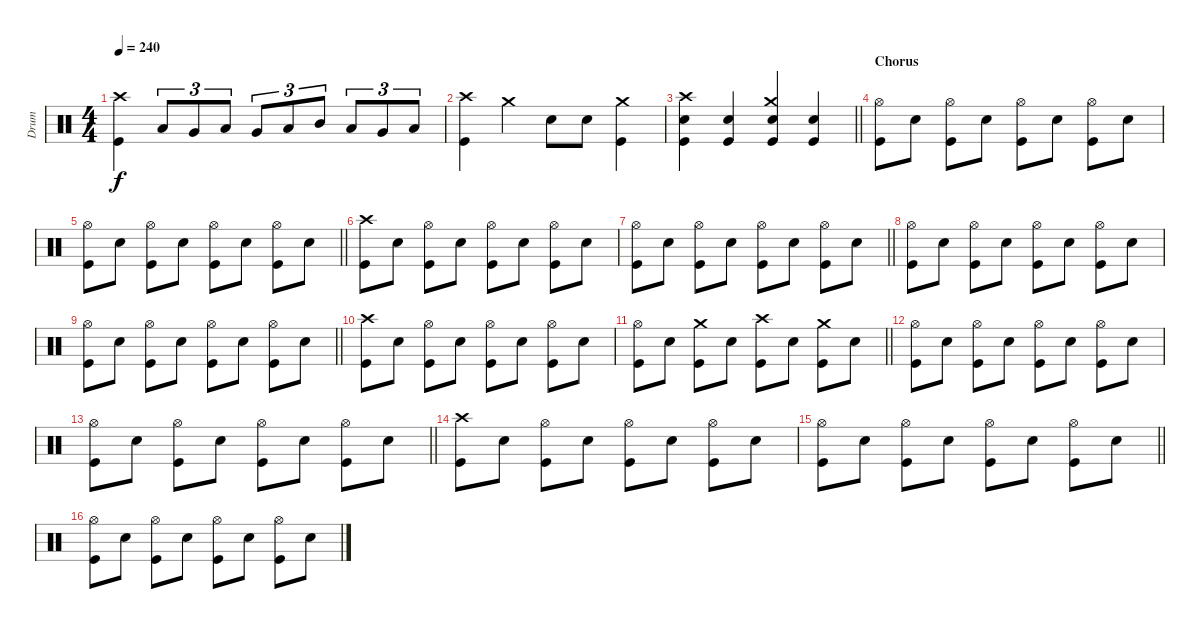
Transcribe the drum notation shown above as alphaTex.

\track ("Drum" "Drum") {instrument percussion}
\staff {score}
\articulation defaults
\ts (4 4)
\tempo 240
\clef neutral
\ks c
("Crash high (hit)" "Kick (hit)").4{dy f} "Low Floor Tom (hit)".8{tu (3 2)} "Very Low Tom (hit)".8{tu (3 2)} "Low Tom (hit)".8{tu (3 2)} "Very Low Tom (hit)".8{tu (3 2)} "Low Tom (hit)".8{tu (3 2)} "Mid Tom (hit)".8{tu (3 2)} "Low Tom (hit)".8{tu (3 2)} "Very Low Tom (hit)".8{tu (3 2)} "Low Tom (hit)".8{tu (3 2)} |
("Crash high (hit)" "Kick (hit)").4 "Crash medium (hit)".4 "Snare (hit) 2".8 "Snare (hit) 2".8 ("Crash medium (hit)" "Kick (hit)").4 |
\barLineRight lightlight
("Crash high (hit)" "Snare (hit) 2" "Kick (hit)").4 ("Snare (hit) 2" "Kick (hit)").4 ("Crash medium (hit)" "Snare (hit) 2" "Kick (hit)").4 ("Snare (hit) 2" "Kick (hit)").4 |
\section ("" "Chorus")
("Hi-Hat (open)" "Kick (hit)").8 "Snare (hit) 2".8 ("Hi-Hat (open)" "Kick (hit)").8 "Snare (hit) 2".8 ("Hi-Hat (open)" "Kick (hit)").8 "Snare (hit) 2".8 ("Hi-Hat (open)" "Kick (hit)").8 "Snare (hit) 2".8 |
\barLineRight lightlight
("Hi-Hat (open)" "Kick (hit)").8 "Snare (hit) 2".8 ("Hi-Hat (open)" "Kick (hit)").8 "Snare (hit) 2".8 ("Hi-Hat (open)" "Kick (hit)").8 "Snare (hit) 2".8 ("Hi-Hat (open)" "Kick (hit)").8 "Snare (hit) 2".8 |
("Crash high (hit)" "Kick (hit)").8 "Snare (hit) 2".8 ("Hi-Hat (open)" "Kick (hit)").8 "Snare (hit) 2".8 ("Hi-Hat (open)" "Kick (hit)").8 "Snare (hit) 2".8 ("Hi-Hat (open)" "Kick (hit)").8 "Snare (hit) 2".8 |
\barLineRight lightlight
("Hi-Hat (open)" "Kick (hit)").8 "Snare (hit) 2".8 ("Hi-Hat (open)" "Kick (hit)").8 "Snare (hit) 2".8 ("Hi-Hat (open)" "Kick (hit)").8 "Snare (hit) 2".8 ("Hi-Hat (open)" "Kick (hit)").8 "Snare (hit) 2".8 |
("Hi-Hat (open)" "Kick (hit)").8 "Snare (hit) 2".8 ("Hi-Hat (open)" "Kick (hit)").8 "Snare (hit) 2".8 ("Hi-Hat (open)" "Kick (hit)").8 "Snare (hit) 2".8 ("Hi-Hat (open)" "Kick (hit)").8 "Snare (hit) 2".8 |
\barLineRight lightlight
("Hi-Hat (open)" "Kick (hit)").8 "Snare (hit) 2".8 ("Hi-Hat (open)" "Kick (hit)").8 "Snare (hit) 2".8 ("Hi-Hat (open)" "Kick (hit)").8 "Snare (hit) 2".8 ("Hi-Hat (open)" "Kick (hit)").8 "Snare (hit) 2".8 |
("Crash high (hit)" "Kick (hit)").8 "Snare (hit) 2".8 ("Hi-Hat (open)" "Kick (hit)").8 "Snare (hit) 2".8 ("Hi-Hat (open)" "Kick (hit)").8 "Snare (hit) 2".8 ("Hi-Hat (open)" "Kick (hit)").8 "Snare (hit) 2".8 |
\barLineRight lightlight
("Hi-Hat (open)" "Kick (hit)").8 "Snare (hit) 2".8 ("Crash medium (hit)" "Kick (hit)").8 "Snare (hit) 2".8 ("Crash high (hit)" "Kick (hit)").8 "Snare (hit) 2".8 ("Crash medium (hit)" "Kick (hit)").8 "Snare (hit) 2".8 |
("Hi-Hat (open)" "Kick (hit)").8 "Snare (hit) 2".8 ("Hi-Hat (open)" "Kick (hit)").8 "Snare (hit) 2".8 ("Hi-Hat (open)" "Kick (hit)").8 "Snare (hit) 2".8 ("Hi-Hat (open)" "Kick (hit)").8 "Snare (hit) 2".8 |
\barLineRight lightlight
("Hi-Hat (open)" "Kick (hit)").8 "Snare (hit) 2".8 ("Hi-Hat (open)" "Kick (hit)").8 "Snare (hit) 2".8 ("Hi-Hat (open)" "Kick (hit)").8 "Snare (hit) 2".8 ("Hi-Hat (open)" "Kick (hit)").8 "Snare (hit) 2".8 |
("Crash high (hit)" "Kick (hit)").8 "Snare (hit) 2".8 ("Hi-Hat (open)" "Kick (hit)").8 "Snare (hit) 2".8 ("Hi-Hat (open)" "Kick (hit)").8 "Snare (hit) 2".8 ("Hi-Hat (open)" "Kick (hit)").8 "Snare (hit) 2".8 |
\barLineRight lightlight
("Hi-Hat (open)" "Kick (hit)").8 "Snare (hit) 2".8 ("Hi-Hat (open)" "Kick (hit)").8 "Snare (hit) 2".8 ("Hi-Hat (open)" "Kick (hit)").8 "Snare (hit) 2".8 ("Hi-Hat (open)" "Kick (hit)").8 "Snare (hit) 2".8 |
("Hi-Hat (open)" "Kick (hit)").8 "Snare (hit) 2".8 ("Hi-Hat (open)" "Kick (hit)").8 "Snare (hit) 2".8 ("Hi-Hat (open)" "Kick (hit)").8 "Snare (hit) 2".8 ("Hi-Hat (open)" "Kick (hit)").8 "Snare (hit) 2".8
